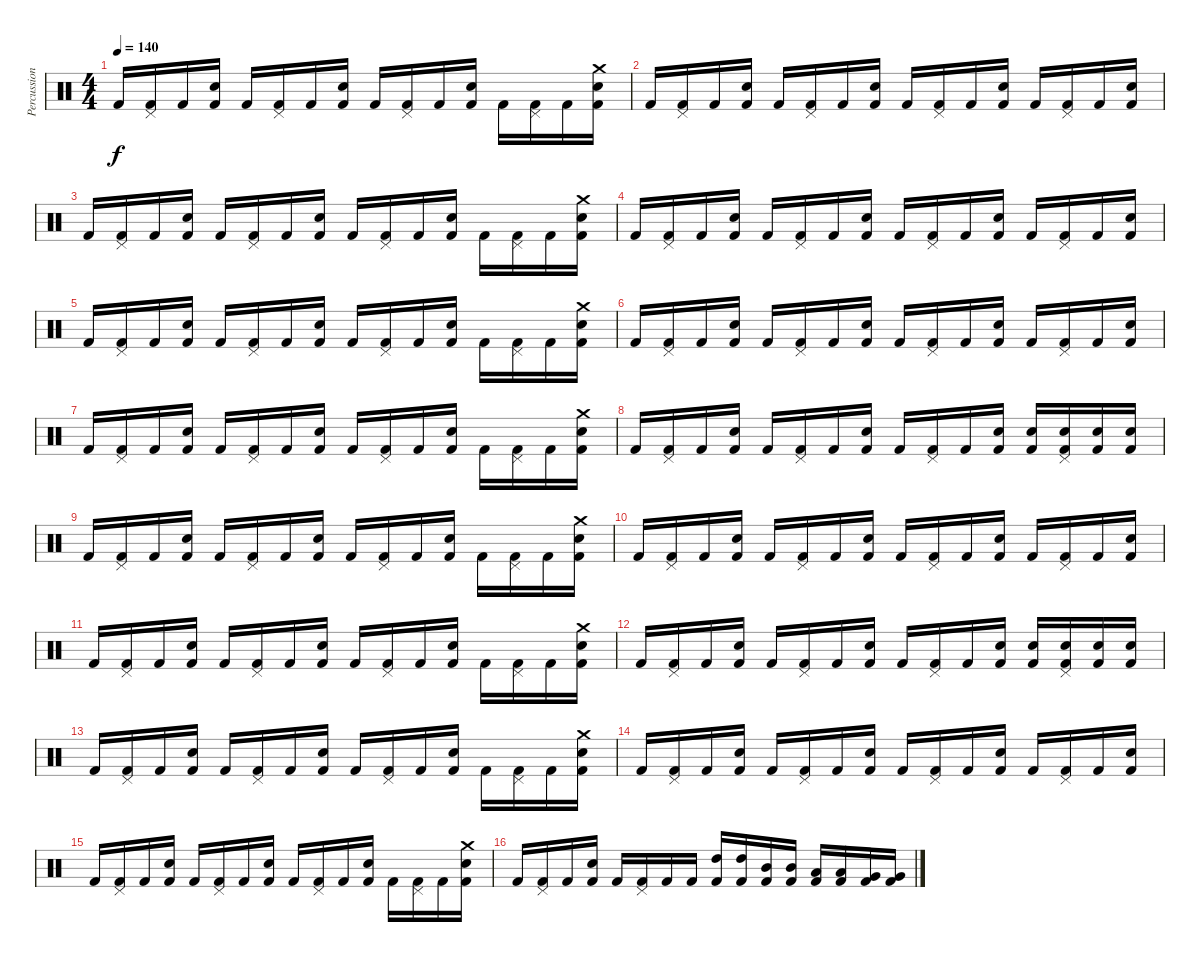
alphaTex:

\track ("Percussion" "Percussion") {instrument percussion}
\staff {score}
\articulation defaults
\ts (4 4)
\tempo 140
\clef neutral
\ks c "Kick (hit) 2".16{dy f}
("Pedal Hi-Hat (hit)" "Kick (hit) 2").16 "Kick (hit) 2".16 ("Snare (hit) 2" "Kick (hit) 2").16 "Kick (hit) 2".16 ("Pedal Hi-Hat (hit)" "Kick (hit) 2").16 "Kick (hit) 2".16 ("Snare (hit) 2" "Kick (hit) 2").16 "Kick (hit) 2".16 ("Pedal Hi-Hat (hit)" "Kick (hit) 2").16 "Kick (hit) 2".16 ("Snare (hit) 2" "Kick (hit) 2").16 "Kick (hit) 2".16 ("Pedal Hi-Hat (hit)" "Kick (hit) 2").16 "Kick (hit) 2".16 ("Crash medium (hit)" "Snare (hit) 2" "Kick (hit) 2").16 |
"Kick (hit) 2".16 ("Pedal Hi-Hat (hit)" "Kick (hit) 2").16 "Kick (hit) 2".16 ("Snare (hit) 2" "Kick (hit) 2").16 "Kick (hit) 2".16 ("Pedal Hi-Hat (hit)" "Kick (hit) 2").16 "Kick (hit) 2".16 ("Snare (hit) 2" "Kick (hit) 2").16 "Kick (hit) 2".16 ("Pedal Hi-Hat (hit)" "Kick (hit) 2").16 "Kick (hit) 2".16 ("Snare (hit) 2" "Kick (hit) 2").16 "Kick (hit) 2".16 ("Pedal Hi-Hat (hit)" "Kick (hit) 2").16 "Kick (hit) 2".16 ("Snare (hit) 2" "Kick (hit) 2").16 |
"Kick (hit) 2".16 ("Pedal Hi-Hat (hit)" "Kick (hit) 2").16 "Kick (hit) 2".16 ("Snare (hit) 2" "Kick (hit) 2").16 "Kick (hit) 2".16 ("Pedal Hi-Hat (hit)" "Kick (hit) 2").16 "Kick (hit) 2".16 ("Snare (hit) 2" "Kick (hit) 2").16 "Kick (hit) 2".16 ("Pedal Hi-Hat (hit)" "Kick (hit) 2").16 "Kick (hit) 2".16 ("Snare (hit) 2" "Kick (hit) 2").16 "Kick (hit) 2".16 ("Pedal Hi-Hat (hit)" "Kick (hit) 2").16 "Kick (hit) 2".16 ("Crash medium (hit)" "Snare (hit) 2" "Kick (hit) 2").16 |
"Kick (hit) 2".16 ("Pedal Hi-Hat (hit)" "Kick (hit) 2").16 "Kick (hit) 2".16 ("Snare (hit) 2" "Kick (hit) 2").16 "Kick (hit) 2".16 ("Pedal Hi-Hat (hit)" "Kick (hit) 2").16 "Kick (hit) 2".16 ("Snare (hit) 2" "Kick (hit) 2").16 "Kick (hit) 2".16 ("Pedal Hi-Hat (hit)" "Kick (hit) 2").16 "Kick (hit) 2".16 ("Snare (hit) 2" "Kick (hit) 2").16 "Kick (hit) 2".16 ("Pedal Hi-Hat (hit)" "Kick (hit) 2").16 "Kick (hit) 2".16 ("Snare (hit) 2" "Kick (hit) 2").16 |
"Kick (hit) 2".16 ("Pedal Hi-Hat (hit)" "Kick (hit) 2").16 "Kick (hit) 2".16 ("Snare (hit) 2" "Kick (hit) 2").16 "Kick (hit) 2".16 ("Pedal Hi-Hat (hit)" "Kick (hit) 2").16 "Kick (hit) 2".16 ("Snare (hit) 2" "Kick (hit) 2").16 "Kick (hit) 2".16 ("Pedal Hi-Hat (hit)" "Kick (hit) 2").16 "Kick (hit) 2".16 ("Snare (hit) 2" "Kick (hit) 2").16 "Kick (hit) 2".16 ("Pedal Hi-Hat (hit)" "Kick (hit) 2").16 "Kick (hit) 2".16 ("Crash medium (hit)" "Snare (hit) 2" "Kick (hit) 2").16 |
"Kick (hit) 2".16 ("Pedal Hi-Hat (hit)" "Kick (hit) 2").16 "Kick (hit) 2".16 ("Snare (hit) 2" "Kick (hit) 2").16 "Kick (hit) 2".16 ("Pedal Hi-Hat (hit)" "Kick (hit) 2").16 "Kick (hit) 2".16 ("Snare (hit) 2" "Kick (hit) 2").16 "Kick (hit) 2".16 ("Pedal Hi-Hat (hit)" "Kick (hit) 2").16 "Kick (hit) 2".16 ("Snare (hit) 2" "Kick (hit) 2").16 "Kick (hit) 2".16 ("Pedal Hi-Hat (hit)" "Kick (hit) 2").16 "Kick (hit) 2".16 ("Snare (hit) 2" "Kick (hit) 2").16 |
"Kick (hit) 2".16 ("Pedal Hi-Hat (hit)" "Kick (hit) 2").16 "Kick (hit) 2".16 ("Snare (hit) 2" "Kick (hit) 2").16 "Kick (hit) 2".16 ("Pedal Hi-Hat (hit)" "Kick (hit) 2").16 "Kick (hit) 2".16 ("Snare (hit) 2" "Kick (hit) 2").16 "Kick (hit) 2".16 ("Pedal Hi-Hat (hit)" "Kick (hit) 2").16 "Kick (hit) 2".16 ("Snare (hit) 2" "Kick (hit) 2").16 "Kick (hit) 2".16 ("Pedal Hi-Hat (hit)" "Kick (hit) 2").16 "Kick (hit) 2".16 ("Crash medium (hit)" "Snare (hit) 2" "Kick (hit) 2").16 |
"Kick (hit) 2".16 ("Pedal Hi-Hat (hit)" "Kick (hit) 2").16 "Kick (hit) 2".16 ("Snare (hit) 2" "Kick (hit) 2").16 "Kick (hit) 2".16 ("Pedal Hi-Hat (hit)" "Kick (hit) 2").16 "Kick (hit) 2".16 ("Snare (hit) 2" "Kick (hit) 2").16 "Kick (hit) 2".16 ("Pedal Hi-Hat (hit)" "Kick (hit) 2").16 "Kick (hit) 2".16 ("Snare (hit) 2" "Kick (hit) 2").16 ("Snare (hit) 2" "Kick (hit) 2").16 ("Pedal Hi-Hat (hit)" "Snare (hit) 2" "Kick (hit) 2").16 ("Snare (hit) 2" "Kick (hit) 2").16 ("Snare (hit) 2" "Kick (hit) 2").16 |
"Kick (hit) 2".16 ("Pedal Hi-Hat (hit)" "Kick (hit) 2").16 "Kick (hit) 2".16 ("Snare (hit) 2" "Kick (hit) 2").16 "Kick (hit) 2".16 ("Pedal Hi-Hat (hit)" "Kick (hit) 2").16 "Kick (hit) 2".16 ("Snare (hit) 2" "Kick (hit) 2").16 "Kick (hit) 2".16 ("Pedal Hi-Hat (hit)" "Kick (hit) 2").16 "Kick (hit) 2".16 ("Snare (hit) 2" "Kick (hit) 2").16 "Kick (hit) 2".16 ("Pedal Hi-Hat (hit)" "Kick (hit) 2").16 "Kick (hit) 2".16 ("Crash medium (hit)" "Snare (hit) 2" "Kick (hit) 2").16 |
"Kick (hit) 2".16 ("Pedal Hi-Hat (hit)" "Kick (hit) 2").16 "Kick (hit) 2".16 ("Snare (hit) 2" "Kick (hit) 2").16 "Kick (hit) 2".16 ("Pedal Hi-Hat (hit)" "Kick (hit) 2").16 "Kick (hit) 2".16 ("Snare (hit) 2" "Kick (hit) 2").16 "Kick (hit) 2".16 ("Pedal Hi-Hat (hit)" "Kick (hit) 2").16 "Kick (hit) 2".16 ("Snare (hit) 2" "Kick (hit) 2").16 "Kick (hit) 2".16 ("Pedal Hi-Hat (hit)" "Kick (hit) 2").16 "Kick (hit) 2".16 ("Snare (hit) 2" "Kick (hit) 2").16 |
"Kick (hit) 2".16 ("Pedal Hi-Hat (hit)" "Kick (hit) 2").16 "Kick (hit) 2".16 ("Snare (hit) 2" "Kick (hit) 2").16 "Kick (hit) 2".16 ("Pedal Hi-Hat (hit)" "Kick (hit) 2").16 "Kick (hit) 2".16 ("Snare (hit) 2" "Kick (hit) 2").16 "Kick (hit) 2".16 ("Pedal Hi-Hat (hit)" "Kick (hit) 2").16 "Kick (hit) 2".16 ("Snare (hit) 2" "Kick (hit) 2").16 "Kick (hit) 2".16 ("Pedal Hi-Hat (hit)" "Kick (hit) 2").16 "Kick (hit) 2".16 ("Crash medium (hit)" "Snare (hit) 2" "Kick (hit) 2").16 |
"Kick (hit) 2".16 ("Pedal Hi-Hat (hit)" "Kick (hit) 2").16 "Kick (hit) 2".16 ("Snare (hit) 2" "Kick (hit) 2").16 "Kick (hit) 2".16 ("Pedal Hi-Hat (hit)" "Kick (hit) 2").16 "Kick (hit) 2".16 ("Snare (hit) 2" "Kick (hit) 2").16 "Kick (hit) 2".16 ("Pedal Hi-Hat (hit)" "Kick (hit) 2").16 "Kick (hit) 2".16 ("Snare (hit) 2" "Kick (hit) 2").16 ("Snare (hit) 2" "Kick (hit) 2").16 ("Pedal Hi-Hat (hit)" "Snare (hit) 2" "Kick (hit) 2").16 ("Snare (hit) 2" "Kick (hit) 2").16 ("Snare (hit) 2" "Kick (hit) 2").16 |
"Kick (hit) 2".16 ("Pedal Hi-Hat (hit)" "Kick (hit) 2").16 "Kick (hit) 2".16 ("Snare (hit) 2" "Kick (hit) 2").16 "Kick (hit) 2".16 ("Pedal Hi-Hat (hit)" "Kick (hit) 2").16 "Kick (hit) 2".16 ("Snare (hit) 2" "Kick (hit) 2").16 "Kick (hit) 2".16 ("Pedal Hi-Hat (hit)" "Kick (hit) 2").16 "Kick (hit) 2".16 ("Snare (hit) 2" "Kick (hit) 2").16 "Kick (hit) 2".16 ("Pedal Hi-Hat (hit)" "Kick (hit) 2").16 "Kick (hit) 2".16 ("Crash medium (hit)" "Snare (hit) 2" "Kick (hit) 2").16 |
"Kick (hit) 2".16 ("Pedal Hi-Hat (hit)" "Kick (hit) 2").16 "Kick (hit) 2".16 ("Snare (hit) 2" "Kick (hit) 2").16 "Kick (hit) 2".16 ("Pedal Hi-Hat (hit)" "Kick (hit) 2").16 "Kick (hit) 2".16 ("Snare (hit) 2" "Kick (hit) 2").16 "Kick (hit) 2".16 ("Pedal Hi-Hat (hit)" "Kick (hit) 2").16 "Kick (hit) 2".16 ("Snare (hit) 2" "Kick (hit) 2").16 "Kick (hit) 2".16 ("Pedal Hi-Hat (hit)" "Kick (hit) 2").16 "Kick (hit) 2".16 ("Snare (hit) 2" "Kick (hit) 2").16 |
"Kick (hit) 2".16 ("Pedal Hi-Hat (hit)" "Kick (hit) 2").16 "Kick (hit) 2".16 ("Snare (hit) 2" "Kick (hit) 2").16 "Kick (hit) 2".16 ("Pedal Hi-Hat (hit)" "Kick (hit) 2").16 "Kick (hit) 2".16 ("Snare (hit) 2" "Kick (hit) 2").16 "Kick (hit) 2".16 ("Pedal Hi-Hat (hit)" "Kick (hit) 2").16 "Kick (hit) 2".16 ("Snare (hit) 2" "Kick (hit) 2").16 "Kick (hit) 2".16 ("Pedal Hi-Hat (hit)" "Kick (hit) 2").16 "Kick (hit) 2".16 ("Crash medium (hit)" "Snare (hit) 2" "Kick (hit) 2").16 |
"Kick (hit) 2".16 ("Pedal Hi-Hat (hit)" "Kick (hit) 2").16 "Kick (hit) 2".16 ("Snare (hit) 2" "Kick (hit) 2").16 "Kick (hit) 2".16 ("Pedal Hi-Hat (hit)" "Kick (hit) 2").16 "Kick (hit) 2".16 "Kick (hit) 2".16 ("High Tom (hit)" "Kick (hit) 2").16 ("High Tom (hit)" "Kick (hit) 2").16 ("Mid Tom (hit)" "Kick (hit) 2").16 ("Mid Tom (hit)" "Kick (hit) 2").16 ("Low Tom (hit)" "Kick (hit) 2").16 ("Low Tom (hit)" "Kick (hit) 2").16 ("Very Low Tom (hit)" "Kick (hit) 2").16 ("Very Low Tom (hit)" "Kick (hit) 2").16
